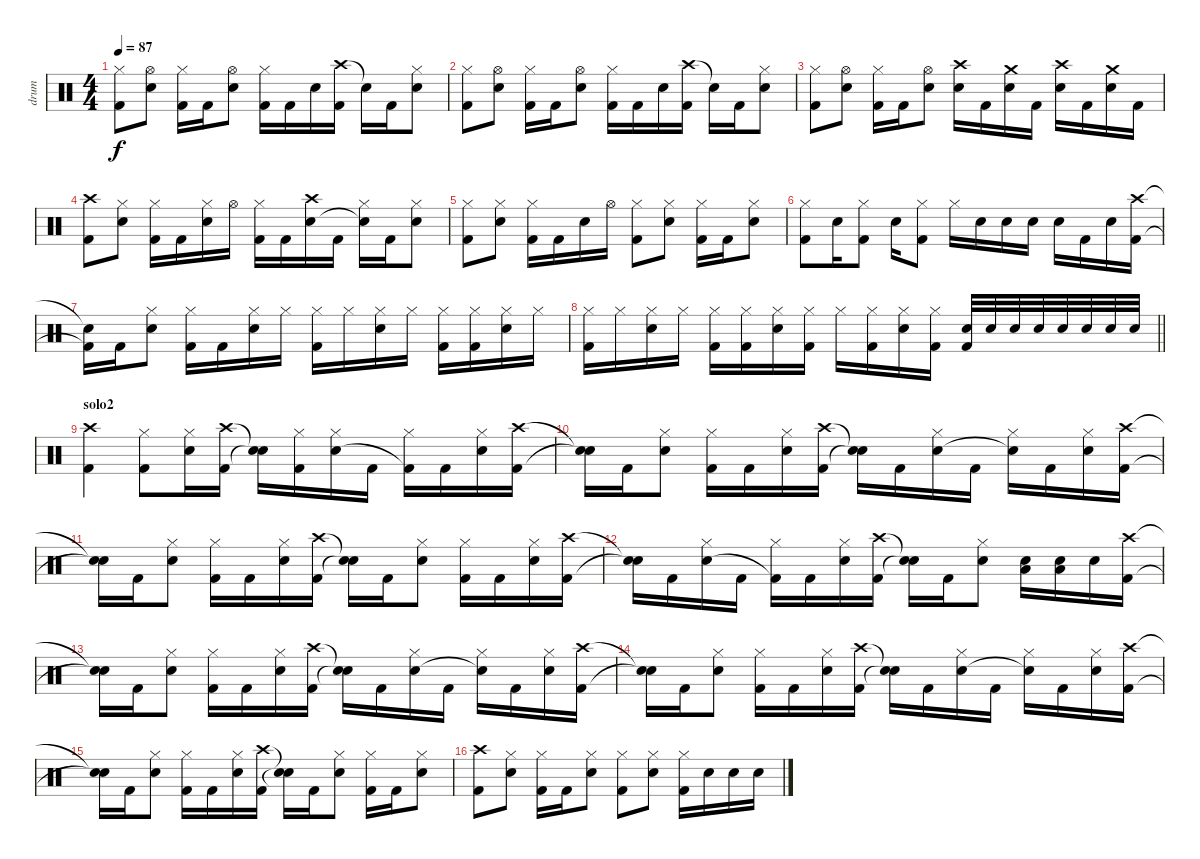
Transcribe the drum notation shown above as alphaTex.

\track ("drum" "drum") {instrument percussion}
\staff {score}
\articulation defaults
\ts (4 4)
\tempo 87
\clef neutral
\ks c
("Hi-Hat (closed)" "Kick (hit) 2").8{dy f} ("Hi-Hat (open)" "Snare (hit) 2").8 ("Hi-Hat (closed)" "Kick (hit) 2").16 "Kick (hit) 2".16 ("Hi-Hat (open)" "Snare (hit) 2").8 ("Hi-Hat (closed)" "Kick (hit) 2").16 "Kick (hit) 2".16 "Snare (hit) 2".16 ("Crash high (hit)" "Kick (hit) 2").16 "Snare (hit)"{t}.16 "Kick (hit) 2".16 ("Hi-Hat (closed)" "Snare (hit) 2").8 |
("Hi-Hat (closed)" "Kick (hit) 2").8 ("Hi-Hat (open)" "Snare (hit) 2").8 ("Hi-Hat (closed)" "Kick (hit) 2").16 "Kick (hit) 2".16 ("Hi-Hat (open)" "Snare (hit) 2").8 ("Hi-Hat (closed)" "Kick (hit) 2").16 "Kick (hit) 2".16 "Snare (hit) 2".16 ("Crash high (hit)" "Kick (hit) 2").16 "Snare (hit)"{t}.16 "Kick (hit) 2".16 ("Hi-Hat (closed)" "Snare (hit) 2").8 |
("Hi-Hat (closed)" "Kick (hit) 2").8 ("Hi-Hat (open)" "Snare (hit) 2").8 ("Hi-Hat (closed)" "Kick (hit) 2").16 "Kick (hit) 2".16 ("Hi-Hat (open)" "Snare (hit) 2").8 ("Crash high (hit)" "Snare (hit) 2").16 "Kick (hit) 2".16 ("Crash medium (hit)" "Snare (hit) 2").16 "Kick (hit) 2".16 ("Crash high (hit)" "Snare (hit) 2").16 "Kick (hit) 2".16 ("Crash medium (hit)" "Snare (hit) 2").16 "Kick (hit) 2".16 |
("Crash high (hit)" "Kick (hit) 2").8 ("Hi-Hat (closed)" "Snare (hit) 2").8 ("Hi-Hat (closed)" "Kick (hit) 2").16 "Kick (hit) 2".16 ("Hi-Hat (closed)" "Snare (hit) 2").16 "Hi-Hat (open)".16 ("Hi-Hat (closed)" "Kick (hit) 2").16 "Kick (hit) 2".16 ("Crash high (hit)" "Snare (hit) 2").16 "Kick (hit) 2".16 ("Hi-Hat (closed)" "Snare (hit)"{t}).16 "Kick (hit) 2".16 ("Hi-Hat (closed)" "Snare (hit) 2").8 |
("Hi-Hat (closed)" "Kick (hit) 2").8 ("Hi-Hat (closed)" "Snare (hit) 2").8 ("Hi-Hat (closed)" "Kick (hit) 2").16 "Kick (hit) 2".16 "Snare (hit) 2".16 "Hi-Hat (open)".16 ("Hi-Hat (closed)" "Kick (hit) 2").8 ("Hi-Hat (closed)" "Snare (hit) 2").8 ("Hi-Hat (closed)" "Kick (hit) 2").16 "Kick (hit) 2".16 ("Hi-Hat (closed)" "Snare (hit) 2").8 |
("Hi-Hat (closed)" "Kick (hit) 2").8 "Snare (hit) 2".16 ("Hi-Hat (closed)" "Kick (hit) 2").8 "Snare (hit) 2".16 ("Hi-Hat (closed)" "Kick (hit) 2").8 "Hi-Hat (closed)".16 "Snare (hit) 2".16 "Snare (hit) 2".16 "Snare (hit) 2".16 "Snare (hit) 2".16 "Kick (hit) 2".16 "Snare (hit) 2".16 ("Crash high (hit)" "Kick (hit) 2").16 |
("Snare (hit)"{t} "Kick (hit) 2"{t}).16 "Kick (hit) 2".16 ("Hi-Hat (closed)" "Snare (hit) 2").8 ("Hi-Hat (closed)" "Kick (hit) 2").16 "Kick (hit) 2".16 ("Hi-Hat (closed)" "Snare (hit) 2").16 "Hi-Hat (closed)".16 ("Hi-Hat (closed)" "Kick (hit) 2").16 "Hi-Hat (closed)".16 ("Hi-Hat (closed)" "Snare (hit) 2").16 "Hi-Hat (closed)".16 ("Hi-Hat (closed)" "Kick (hit) 2").16 ("Hi-Hat (closed)" "Kick (hit) 2").16 ("Hi-Hat (closed)" "Snare (hit) 2").16 "Hi-Hat (closed)".16 |
\barLineRight lightlight
("Hi-Hat (closed)" "Kick (hit) 2").16 "Hi-Hat (closed)".16 ("Hi-Hat (closed)" "Snare (hit) 2").16 "Hi-Hat (closed)".16 ("Hi-Hat (closed)" "Kick (hit) 2").16 ("Hi-Hat (closed)" "Kick (hit) 2").16 ("Hi-Hat (closed)" "Snare (hit) 2").16 ("Hi-Hat (closed)" "Kick (hit) 2").16 "Hi-Hat (closed)".16 ("Hi-Hat (closed)" "Kick (hit) 2").16 ("Hi-Hat (closed)" "Snare (hit) 2").16 ("Hi-Hat (closed)" "Kick (hit) 2").16 ("Snare (hit) 2" "Kick (hit) 2").32 "Snare (hit) 2".32 "Snare (hit) 2".32 "Snare (hit) 2".32 "Snare (hit) 2".32 "Snare (hit) 2".32 "Snare (hit) 2".32 "Snare (hit) 2".32 |
\section ("" "solo2")
("Crash high (hit)" "Kick (hit) 2").4 ("Hi-Hat (closed)" "Kick (hit) 2").8 ("Hi-Hat (closed)" "Snare (hit) 2").16 ("Crash high (hit)" "Kick (hit) 2").16 ("Snare (hit)"{t} "Snare (hit)"{t}).16 ("Hi-Hat (closed)" "Kick (hit) 2").16 ("Hi-Hat (closed)" "Snare (hit) 2").16 "Kick (hit) 2".16 ("Hi-Hat (closed)" "Kick (hit) 2"{t}).16 "Kick (hit) 2".16 ("Hi-Hat (closed)" "Snare (hit) 2").16 ("Crash high (hit)" "Kick (hit) 2").16 |
("Snare (hit)"{t} "Snare (hit)"{t}).16 "Kick (hit) 2".16 ("Hi-Hat (closed)" "Snare (hit) 2").8 ("Hi-Hat (closed)" "Kick (hit) 2").16 "Kick (hit) 2".16 ("Hi-Hat (closed)" "Snare (hit) 2").16 ("Crash high (hit)" "Kick (hit) 2").16 ("Snare (hit)"{t} "Snare (hit)"{t}).16 "Kick (hit) 2".16 ("Hi-Hat (closed)" "Snare (hit) 2").16 "Kick (hit) 2".16 ("Hi-Hat (closed)" "Snare (hit)"{t}).16 "Kick (hit) 2".16 ("Hi-Hat (closed)" "Snare (hit) 2").16 ("Crash high (hit)" "Kick (hit) 2").16 |
("Snare (hit)"{t} "Snare (hit)"{t}).16 "Kick (hit) 2".16 ("Hi-Hat (closed)" "Snare (hit) 2").8 ("Hi-Hat (closed)" "Kick (hit) 2").16 "Kick (hit) 2".16 ("Hi-Hat (closed)" "Snare (hit) 2").16 ("Crash high (hit)" "Kick (hit) 2").16 ("Snare (hit)"{t} "Snare (hit)"{t}).16 "Kick (hit) 2".16 ("Hi-Hat (closed)" "Snare (hit) 2").8 ("Hi-Hat (closed)" "Kick (hit) 2").16 "Kick (hit) 2".16 ("Hi-Hat (closed)" "Snare (hit) 2").16 ("Crash high (hit)" "Kick (hit) 2").16 |
("Snare (hit)"{t} "Snare (hit)"{t}).16 "Kick (hit) 2".16 ("Hi-Hat (closed)" "Snare (hit) 2").16 "Kick (hit) 2".16 ("Hi-Hat (closed)" "Kick (hit) 2"{t}).16 "Kick (hit) 2".16 ("Hi-Hat (closed)" "Snare (hit) 2").16 ("Crash high (hit)" "Kick (hit) 2").16 ("Snare (hit)"{t} "Snare (hit)"{t}).16 "Kick (hit) 2".16 ("Hi-Hat (closed)" "Snare (hit) 2").8 ("Snare (hit) 2" "Low Floor Tom (hit)").16 ("Snare (hit) 2" "Low Floor Tom (hit)").16 "Snare (hit) 2".16 ("Crash high (hit)" "Kick (hit) 2").16 |
("Snare (hit)"{t} "Snare (hit)"{t}).16 "Kick (hit) 2".16 ("Hi-Hat (closed)" "Snare (hit) 2").8 ("Hi-Hat (closed)" "Kick (hit) 2").16 "Kick (hit) 2".16 ("Hi-Hat (closed)" "Snare (hit) 2").16 ("Crash high (hit)" "Kick (hit) 2").16 ("Snare (hit)"{t} "Snare (hit)"{t}).16 "Kick (hit) 2".16 ("Hi-Hat (closed)" "Snare (hit) 2").16 "Kick (hit) 2".16 ("Hi-Hat (closed)" "Snare (hit)"{t}).16 "Kick (hit) 2".16 ("Hi-Hat (closed)" "Snare (hit) 2").16 ("Crash high (hit)" "Kick (hit) 2").16 |
("Snare (hit)"{t} "Snare (hit)"{t}).16 "Kick (hit) 2".16 ("Hi-Hat (closed)" "Snare (hit) 2").8 ("Hi-Hat (closed)" "Kick (hit) 2").16 "Kick (hit) 2".16 ("Hi-Hat (closed)" "Snare (hit) 2").16 ("Crash high (hit)" "Kick (hit) 2").16 ("Snare (hit)"{t} "Snare (hit)"{t}).16 "Kick (hit) 2".16 ("Hi-Hat (closed)" "Snare (hit) 2").16 "Kick (hit) 2".16 ("Hi-Hat (closed)" "Snare (hit)"{t}).16 "Kick (hit) 2".16 ("Hi-Hat (closed)" "Snare (hit) 2").16 ("Crash high (hit)" "Kick (hit) 2").16 |
("Snare (hit)"{t} "Snare (hit)"{t}).16 "Kick (hit) 2".16 ("Hi-Hat (closed)" "Snare (hit) 2").8 ("Hi-Hat (closed)" "Kick (hit) 2").16 "Kick (hit) 2".16 ("Hi-Hat (closed)" "Snare (hit) 2").16 ("Crash high (hit)" "Kick (hit) 2").16 ("Snare (hit)"{t} "Snare (hit)"{t}).16 "Kick (hit) 2".16 ("Hi-Hat (closed)" "Snare (hit) 2").8 ("Hi-Hat (closed)" "Kick (hit) 2").16 "Kick (hit) 2".16 ("Hi-Hat (closed)" "Snare (hit) 2").8 |
("Crash high (hit)" "Kick (hit) 2").8 ("Hi-Hat (closed)" "Snare (hit) 2").8 ("Hi-Hat (closed)" "Kick (hit) 2").16 "Kick (hit) 2".16 ("Hi-Hat (closed)" "Snare (hit) 2").8 ("Hi-Hat (closed)" "Kick (hit) 2").8 ("Hi-Hat (closed)" "Snare (hit) 2").8 ("Hi-Hat (closed)" "Kick (hit) 2").16 "Snare (hit) 2".16 "Snare (hit) 2".16 "Snare (hit) 2".16
